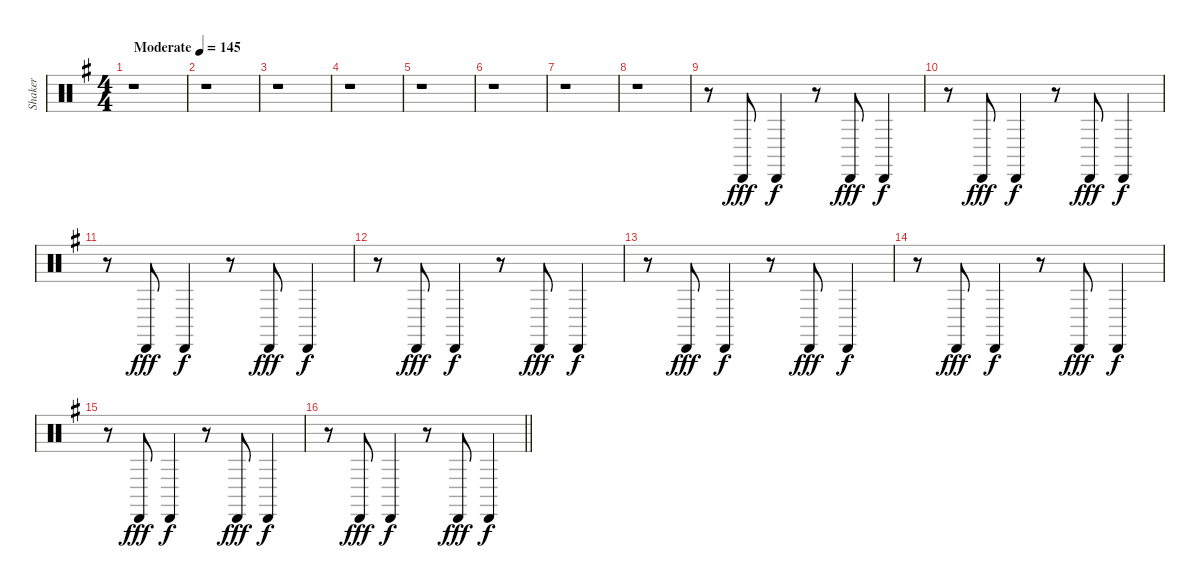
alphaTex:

\track ("Shaker" "Shaker") {instrument percussion}
\staff {score}
\articulation defaults
\ts (4 4)
\tempo (145 "Moderate")
\clef neutral
\ks g
r.1{dy fff} |
r.1 |
r.1 |
r.1 |
r.1 |
r.1 |
r.1 |
r.1 |
r.8 "Cabasa (hit)".8 "Cabasa (hit)".4{dy f} r.8 "Cabasa (hit)".8{dy fff} "Cabasa (hit)".4{dy f} |
r.8 "Cabasa (hit)".8{dy fff} "Cabasa (hit)".4{dy f} r.8 "Cabasa (hit)".8{dy fff} "Cabasa (hit)".4{dy f} |
r.8 "Cabasa (hit)".8{dy fff} "Cabasa (hit)".4{dy f} r.8 "Cabasa (hit)".8{dy fff} "Cabasa (hit)".4{dy f} |
r.8 "Cabasa (hit)".8{dy fff} "Cabasa (hit)".4{dy f} r.8 "Cabasa (hit)".8{dy fff} "Cabasa (hit)".4{dy f} |
r.8 "Cabasa (hit)".8{dy fff} "Cabasa (hit)".4{dy f} r.8 "Cabasa (hit)".8{dy fff} "Cabasa (hit)".4{dy f} |
r.8 "Cabasa (hit)".8{dy fff} "Cabasa (hit)".4{dy f} r.8 "Cabasa (hit)".8{dy fff} "Cabasa (hit)".4{dy f} |
r.8 "Cabasa (hit)".8{dy fff} "Cabasa (hit)".4{dy f} r.8 "Cabasa (hit)".8{dy fff} "Cabasa (hit)".4{dy f} |
\barLineRight lightlight
r.8 "Cabasa (hit)".8{dy fff} "Cabasa (hit)".4{dy f} r.8 "Cabasa (hit)".8{dy fff} "Cabasa (hit)".4{dy f}
